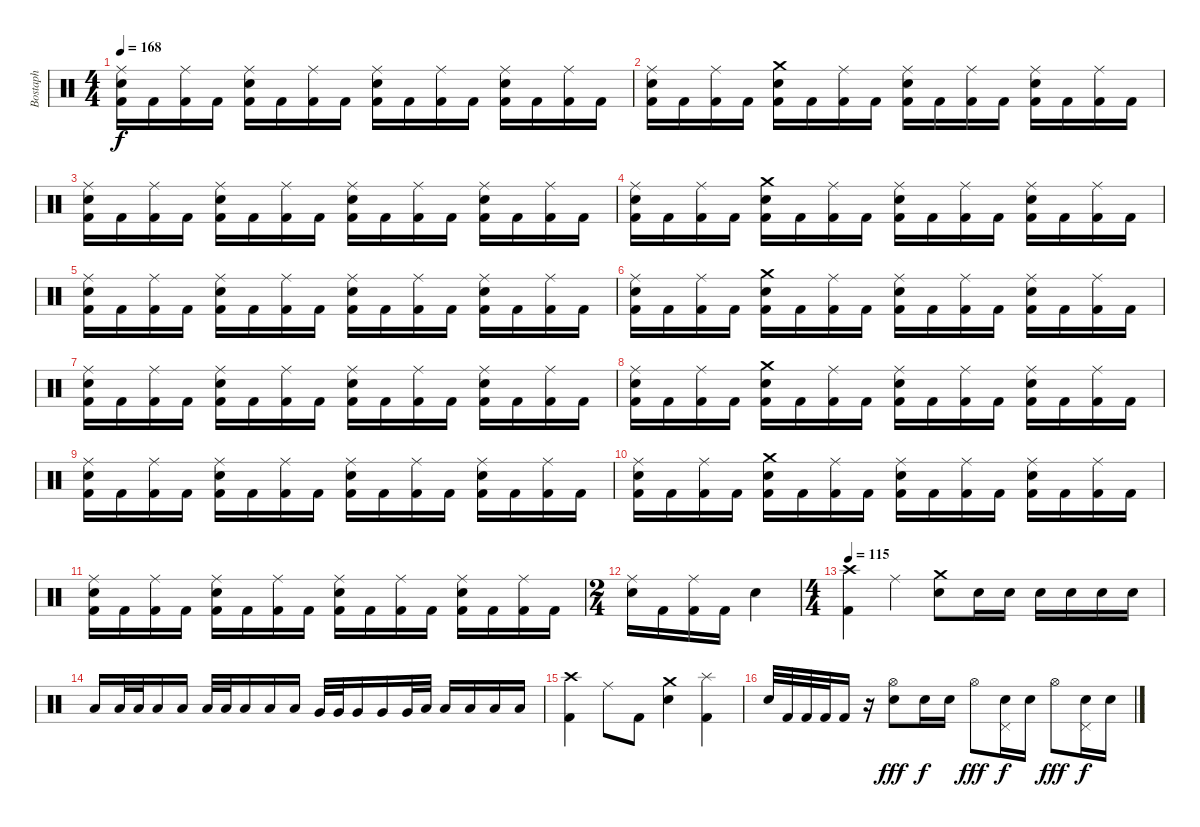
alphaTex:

\track ("Bostaph" "Bostaph") {instrument percussion}
\staff {score}
\articulation defaults
\ts (4 4)
\tempo 168
\clef neutral
\ks c
("Ride (middle)" "Electric Snare (hit)" "Kick (hit) 2").16{dy f} "Kick (hit) 2".16 ("Ride (middle)" "Kick (hit) 2").16 "Kick (hit) 2".16 ("Electric Snare (hit)" "Ride (middle)" "Kick (hit) 2").16 "Kick (hit) 2".16 ("Ride (middle)" "Kick (hit) 2").16 "Kick (hit) 2".16 ("Electric Snare (hit)" "Ride (middle)" "Kick (hit) 2").16 "Kick (hit) 2".16 ("Ride (middle)" "Kick (hit) 2").16 "Kick (hit) 2".16 ("Electric Snare (hit)" "Ride (middle)" "Kick (hit) 2").16 "Kick (hit) 2".16 ("Ride (middle)" "Kick (hit) 2").16 "Kick (hit) 2".16 |
("Ride (middle)" "Electric Snare (hit)" "Kick (hit) 2").16 "Kick (hit) 2".16 ("Ride (middle)" "Kick (hit) 2").16 "Kick (hit) 2".16 ("Crash medium (hit)" "Electric Snare (hit)" "Kick (hit) 2").16 "Kick (hit) 2".16 ("Ride (middle)" "Kick (hit) 2").16 "Kick (hit) 2".16 ("Electric Snare (hit)" "Ride (middle)" "Kick (hit) 2").16 "Kick (hit) 2".16 ("Ride (middle)" "Kick (hit) 2").16 "Kick (hit) 2".16 ("Electric Snare (hit)" "Ride (middle)" "Kick (hit) 2").16 "Kick (hit) 2".16 ("Ride (middle)" "Kick (hit) 2").16 "Kick (hit) 2".16 |
("Ride (middle)" "Electric Snare (hit)" "Kick (hit) 2").16 "Kick (hit) 2".16 ("Ride (middle)" "Kick (hit) 2").16 "Kick (hit) 2".16 ("Electric Snare (hit)" "Ride (middle)" "Kick (hit) 2").16 "Kick (hit) 2".16 ("Ride (middle)" "Kick (hit) 2").16 "Kick (hit) 2".16 ("Electric Snare (hit)" "Ride (middle)" "Kick (hit) 2").16 "Kick (hit) 2".16 ("Ride (middle)" "Kick (hit) 2").16 "Kick (hit) 2".16 ("Electric Snare (hit)" "Ride (middle)" "Kick (hit) 2").16 "Kick (hit) 2".16 ("Ride (middle)" "Kick (hit) 2").16 "Kick (hit) 2".16 |
("Ride (middle)" "Electric Snare (hit)" "Kick (hit) 2").16 "Kick (hit) 2".16 ("Ride (middle)" "Kick (hit) 2").16 "Kick (hit) 2".16 ("Crash medium (hit)" "Electric Snare (hit)" "Kick (hit) 2").16 "Kick (hit) 2".16 ("Ride (middle)" "Kick (hit) 2").16 "Kick (hit) 2".16 ("Electric Snare (hit)" "Ride (middle)" "Kick (hit) 2").16 "Kick (hit) 2".16 ("Ride (middle)" "Kick (hit) 2").16 "Kick (hit) 2".16 ("Electric Snare (hit)" "Ride (middle)" "Kick (hit) 2").16 "Kick (hit) 2".16 ("Ride (middle)" "Kick (hit) 2").16 "Kick (hit) 2".16 |
("Ride (middle)" "Electric Snare (hit)" "Kick (hit) 2").16 "Kick (hit) 2".16 ("Ride (middle)" "Kick (hit) 2").16 "Kick (hit) 2".16 ("Electric Snare (hit)" "Ride (middle)" "Kick (hit) 2").16 "Kick (hit) 2".16 ("Ride (middle)" "Kick (hit) 2").16 "Kick (hit) 2".16 ("Electric Snare (hit)" "Ride (middle)" "Kick (hit) 2").16 "Kick (hit) 2".16 ("Ride (middle)" "Kick (hit) 2").16 "Kick (hit) 2".16 ("Electric Snare (hit)" "Ride (middle)" "Kick (hit) 2").16 "Kick (hit) 2".16 ("Ride (middle)" "Kick (hit) 2").16 "Kick (hit) 2".16 |
("Ride (middle)" "Electric Snare (hit)" "Kick (hit) 2").16 "Kick (hit) 2".16 ("Ride (middle)" "Kick (hit) 2").16 "Kick (hit) 2".16 ("Crash medium (hit)" "Electric Snare (hit)" "Kick (hit) 2").16 "Kick (hit) 2".16 ("Ride (middle)" "Kick (hit) 2").16 "Kick (hit) 2".16 ("Electric Snare (hit)" "Ride (middle)" "Kick (hit) 2").16 "Kick (hit) 2".16 ("Ride (middle)" "Kick (hit) 2").16 "Kick (hit) 2".16 ("Electric Snare (hit)" "Ride (middle)" "Kick (hit) 2").16 "Kick (hit) 2".16 ("Ride (middle)" "Kick (hit) 2").16 "Kick (hit) 2".16 |
("Ride (middle)" "Electric Snare (hit)" "Kick (hit) 2").16 "Kick (hit) 2".16 ("Ride (middle)" "Kick (hit) 2").16 "Kick (hit) 2".16 ("Electric Snare (hit)" "Ride (middle)" "Kick (hit) 2").16 "Kick (hit) 2".16 ("Ride (middle)" "Kick (hit) 2").16 "Kick (hit) 2".16 ("Electric Snare (hit)" "Ride (middle)" "Kick (hit) 2").16 "Kick (hit) 2".16 ("Ride (middle)" "Kick (hit) 2").16 "Kick (hit) 2".16 ("Electric Snare (hit)" "Ride (middle)" "Kick (hit) 2").16 "Kick (hit) 2".16 ("Ride (middle)" "Kick (hit) 2").16 "Kick (hit) 2".16 |
("Ride (middle)" "Electric Snare (hit)" "Kick (hit) 2").16 "Kick (hit) 2".16 ("Ride (middle)" "Kick (hit) 2").16 "Kick (hit) 2".16 ("Crash medium (hit)" "Electric Snare (hit)" "Kick (hit) 2").16 "Kick (hit) 2".16 ("Ride (middle)" "Kick (hit) 2").16 "Kick (hit) 2".16 ("Electric Snare (hit)" "Ride (middle)" "Kick (hit) 2").16 "Kick (hit) 2".16 ("Ride (middle)" "Kick (hit) 2").16 "Kick (hit) 2".16 ("Electric Snare (hit)" "Ride (middle)" "Kick (hit) 2").16 "Kick (hit) 2".16 ("Ride (middle)" "Kick (hit) 2").16 "Kick (hit) 2".16 |
("Ride (middle)" "Electric Snare (hit)" "Kick (hit) 2").16 "Kick (hit) 2".16 ("Ride (middle)" "Kick (hit) 2").16 "Kick (hit) 2".16 ("Electric Snare (hit)" "Ride (middle)" "Kick (hit) 2").16 "Kick (hit) 2".16 ("Ride (middle)" "Kick (hit) 2").16 "Kick (hit) 2".16 ("Electric Snare (hit)" "Ride (middle)" "Kick (hit) 2").16 "Kick (hit) 2".16 ("Ride (middle)" "Kick (hit) 2").16 "Kick (hit) 2".16 ("Electric Snare (hit)" "Ride (middle)" "Kick (hit) 2").16 "Kick (hit) 2".16 ("Ride (middle)" "Kick (hit) 2").16 "Kick (hit) 2".16 |
("Ride (middle)" "Electric Snare (hit)" "Kick (hit) 2").16 "Kick (hit) 2".16 ("Ride (middle)" "Kick (hit) 2").16 "Kick (hit) 2".16 ("Crash medium (hit)" "Electric Snare (hit)" "Kick (hit) 2").16 "Kick (hit) 2".16 ("Ride (middle)" "Kick (hit) 2").16 "Kick (hit) 2".16 ("Electric Snare (hit)" "Ride (middle)" "Kick (hit) 2").16 "Kick (hit) 2".16 ("Ride (middle)" "Kick (hit) 2").16 "Kick (hit) 2".16 ("Electric Snare (hit)" "Ride (middle)" "Kick (hit) 2").16 "Kick (hit) 2".16 ("Ride (middle)" "Kick (hit) 2").16 "Kick (hit) 2".16 |
("Ride (middle)" "Electric Snare (hit)" "Kick (hit) 2").16 "Kick (hit) 2".16 ("Ride (middle)" "Kick (hit) 2").16 "Kick (hit) 2".16 ("Electric Snare (hit)" "Ride (middle)" "Kick (hit) 2").16 "Kick (hit) 2".16 ("Ride (middle)" "Kick (hit) 2").16 "Kick (hit) 2".16 ("Electric Snare (hit)" "Ride (middle)" "Kick (hit) 2").16 "Kick (hit) 2".16 ("Ride (middle)" "Kick (hit) 2").16 "Kick (hit) 2".16 ("Electric Snare (hit)" "Ride (middle)" "Kick (hit) 2").16 "Kick (hit) 2".16 ("Ride (middle)" "Kick (hit) 2").16 "Kick (hit) 2".16 |
\ts (2 4)
("Ride (middle)" "Electric Snare (hit)").16 "Kick (hit) 2".16 ("Ride (middle)" "Kick (hit) 2").16 "Kick (hit) 2".16 "Electric Snare (hit)".4 |
\ts (4 4)
\tempo 115
("Crash high (hit)" "Kick (hit) 2").4 "Ride (middle)".4 ("Crash medium (hit)" "Electric Snare (hit)").8 "Electric Snare (hit)".16 "Electric Snare (hit)".16 "Electric Snare (hit)".16 "Electric Snare (hit)".16 "Electric Snare (hit)".16 "Electric Snare (hit)".16 |
"Low Tom (hit)".16 "Low Tom (hit)".32 "Low Tom (hit)".32 "Low Tom (hit)".16 "Low Tom (hit)".16 "Low Tom (hit)".32 "Low Tom (hit)".32 "Low Tom (hit)".16 "Low Tom (hit)".16 "Low Tom (hit)".16 "Very Low Tom (hit)".32 "Very Low Tom (hit)".32 "Very Low Tom (hit)".16 "Very Low Tom (hit)".16 "Very Low Tom (hit)".32 "Low Floor Tom (hit)".32 "Low Floor Tom (hit)".16 "Low Floor Tom (hit)".16 "Low Floor Tom (hit)".16 "Low Floor Tom (hit)".16 |
("Crash high (hit)" "Kick (hit) 2").4 "Ride (middle)".8 "Kick (hit) 2".8 ("Crash medium (hit)" "Electric Snare (hit)").4 ("Splash (hit)" "Kick (hit) 2").4 |
"Electric Snare (hit)".32 "Kick (hit) 2".32 "Kick (hit) 2".32 "Kick (hit) 2".32 "Kick (hit) 2".16 r.16 ("Hi-Hat (open)" "Electric Snare (hit)").8{dy fff} "Electric Snare (hit)".16{dy f} "Electric Snare (hit)".16 "Hi-Hat (open)".8{dy fff} ("Pedal Hi-Hat (hit)" "Electric Snare (hit)").16{dy f} "Electric Snare (hit)".16 "Hi-Hat (open)".8{dy fff} ("Pedal Hi-Hat (hit)" "Electric Snare (hit)").16{dy f} "Electric Snare (hit)".16
